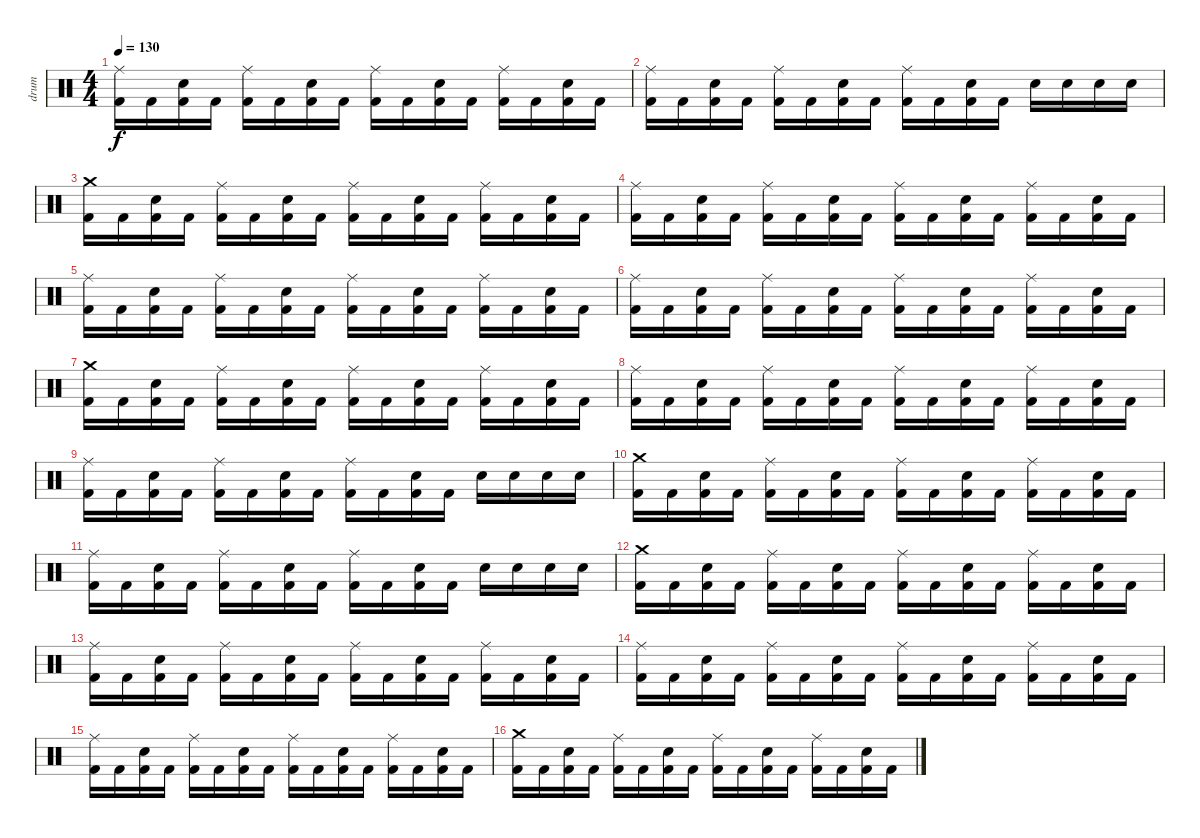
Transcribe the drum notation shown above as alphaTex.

\track ("drum" "drum") {instrument percussion}
\staff {score}
\articulation defaults
\ts (4 4)
\tempo 130
\clef neutral
\ks c
("Ride (middle)" "Kick (hit) 2").16{dy f} "Kick (hit) 2".16 ("Snare (hit) 2" "Kick (hit) 2").16 "Kick (hit) 2".16 ("Ride (middle)" "Kick (hit) 2").16 "Kick (hit) 2".16 ("Snare (hit) 2" "Kick (hit) 2").16 "Kick (hit) 2".16 ("Ride (middle)" "Kick (hit) 2").16 "Kick (hit) 2".16 ("Snare (hit) 2" "Kick (hit) 2").16 "Kick (hit) 2".16 ("Ride (middle)" "Kick (hit) 2").16 "Kick (hit) 2".16 ("Snare (hit) 2" "Kick (hit) 2").16 "Kick (hit) 2".16 |
("Ride (middle)" "Kick (hit) 2").16 "Kick (hit) 2".16 ("Snare (hit) 2" "Kick (hit) 2").16 "Kick (hit) 2".16 ("Ride (middle)" "Kick (hit) 2").16 "Kick (hit) 2".16 ("Snare (hit) 2" "Kick (hit) 2").16 "Kick (hit) 2".16 ("Ride (middle)" "Kick (hit) 2").16 "Kick (hit) 2".16 ("Snare (hit) 2" "Kick (hit) 2").16 "Kick (hit) 2".16 "Snare (hit) 2".16 "Snare (hit) 2".16 "Snare (hit) 2".16 "Snare (hit) 2".16 |
("Crash medium (hit)" "Kick (hit) 2").16 "Kick (hit) 2".16 ("Snare (hit) 2" "Kick (hit) 2").16 "Kick (hit) 2".16 ("Ride (middle)" "Kick (hit) 2").16 "Kick (hit) 2".16 ("Snare (hit) 2" "Kick (hit) 2").16 "Kick (hit) 2".16 ("Ride (middle)" "Kick (hit) 2").16 "Kick (hit) 2".16 ("Snare (hit) 2" "Kick (hit) 2").16 "Kick (hit) 2".16 ("Ride (middle)" "Kick (hit) 2").16 "Kick (hit) 2".16 ("Snare (hit) 2" "Kick (hit) 2").16 "Kick (hit) 2".16 |
("Ride (middle)" "Kick (hit) 2").16 "Kick (hit) 2".16 ("Snare (hit) 2" "Kick (hit) 2").16 "Kick (hit) 2".16 ("Ride (middle)" "Kick (hit) 2").16 "Kick (hit) 2".16 ("Snare (hit) 2" "Kick (hit) 2").16 "Kick (hit) 2".16 ("Ride (middle)" "Kick (hit) 2").16 "Kick (hit) 2".16 ("Snare (hit) 2" "Kick (hit) 2").16 "Kick (hit) 2".16 ("Ride (middle)" "Kick (hit) 2").16 "Kick (hit) 2".16 ("Snare (hit) 2" "Kick (hit) 2").16 "Kick (hit) 2".16 |
("Ride (middle)" "Kick (hit) 2").16 "Kick (hit) 2".16 ("Snare (hit) 2" "Kick (hit) 2").16 "Kick (hit) 2".16 ("Ride (middle)" "Kick (hit) 2").16 "Kick (hit) 2".16 ("Snare (hit) 2" "Kick (hit) 2").16 "Kick (hit) 2".16 ("Ride (middle)" "Kick (hit) 2").16 "Kick (hit) 2".16 ("Snare (hit) 2" "Kick (hit) 2").16 "Kick (hit) 2".16 ("Ride (middle)" "Kick (hit) 2").16 "Kick (hit) 2".16 ("Snare (hit) 2" "Kick (hit) 2").16 "Kick (hit) 2".16 |
("Ride (middle)" "Kick (hit) 2").16 "Kick (hit) 2".16 ("Snare (hit) 2" "Kick (hit) 2").16 "Kick (hit) 2".16 ("Ride (middle)" "Kick (hit) 2").16 "Kick (hit) 2".16 ("Snare (hit) 2" "Kick (hit) 2").16 "Kick (hit) 2".16 ("Ride (middle)" "Kick (hit) 2").16 "Kick (hit) 2".16 ("Snare (hit) 2" "Kick (hit) 2").16 "Kick (hit) 2".16 ("Ride (middle)" "Kick (hit) 2").16 "Kick (hit) 2".16 ("Snare (hit) 2" "Kick (hit) 2").16 "Kick (hit) 2".16 |
("Crash medium (hit)" "Kick (hit) 2").16 "Kick (hit) 2".16 ("Snare (hit) 2" "Kick (hit) 2").16 "Kick (hit) 2".16 ("Ride (middle)" "Kick (hit) 2").16 "Kick (hit) 2".16 ("Snare (hit) 2" "Kick (hit) 2").16 "Kick (hit) 2".16 ("Ride (middle)" "Kick (hit) 2").16 "Kick (hit) 2".16 ("Snare (hit) 2" "Kick (hit) 2").16 "Kick (hit) 2".16 ("Ride (middle)" "Kick (hit) 2").16 "Kick (hit) 2".16 ("Snare (hit) 2" "Kick (hit) 2").16 "Kick (hit) 2".16 |
("Ride (middle)" "Kick (hit) 2").16 "Kick (hit) 2".16 ("Snare (hit) 2" "Kick (hit) 2").16 "Kick (hit) 2".16 ("Ride (middle)" "Kick (hit) 2").16 "Kick (hit) 2".16 ("Snare (hit) 2" "Kick (hit) 2").16 "Kick (hit) 2".16 ("Ride (middle)" "Kick (hit) 2").16 "Kick (hit) 2".16 ("Snare (hit) 2" "Kick (hit) 2").16 "Kick (hit) 2".16 ("Ride (middle)" "Kick (hit) 2").16 "Kick (hit) 2".16 ("Snare (hit) 2" "Kick (hit) 2").16 "Kick (hit) 2".16 |
("Ride (middle)" "Kick (hit) 2").16 "Kick (hit) 2".16 ("Snare (hit) 2" "Kick (hit) 2").16 "Kick (hit) 2".16 ("Ride (middle)" "Kick (hit) 2").16 "Kick (hit) 2".16 ("Snare (hit) 2" "Kick (hit) 2").16 "Kick (hit) 2".16 ("Ride (middle)" "Kick (hit) 2").16 "Kick (hit) 2".16 ("Snare (hit) 2" "Kick (hit) 2").16 "Kick (hit) 2".16 "Snare (hit) 2".16 "Snare (hit) 2".16 "Snare (hit) 2".16 "Snare (hit) 2".16 |
("Crash medium (hit)" "Kick (hit) 2").16 "Kick (hit) 2".16 ("Snare (hit) 2" "Kick (hit) 2").16 "Kick (hit) 2".16 ("Ride (middle)" "Kick (hit) 2").16 "Kick (hit) 2".16 ("Snare (hit) 2" "Kick (hit) 2").16 "Kick (hit) 2".16 ("Ride (middle)" "Kick (hit) 2").16 "Kick (hit) 2".16 ("Snare (hit) 2" "Kick (hit) 2").16 "Kick (hit) 2".16 ("Ride (middle)" "Kick (hit) 2").16 "Kick (hit) 2".16 ("Snare (hit) 2" "Kick (hit) 2").16 "Kick (hit) 2".16 |
("Ride (middle)" "Kick (hit) 2").16 "Kick (hit) 2".16 ("Snare (hit) 2" "Kick (hit) 2").16 "Kick (hit) 2".16 ("Ride (middle)" "Kick (hit) 2").16 "Kick (hit) 2".16 ("Snare (hit) 2" "Kick (hit) 2").16 "Kick (hit) 2".16 ("Ride (middle)" "Kick (hit) 2").16 "Kick (hit) 2".16 ("Snare (hit) 2" "Kick (hit) 2").16 "Kick (hit) 2".16 "Snare (hit) 2".16 "Snare (hit) 2".16 "Snare (hit) 2".16 "Snare (hit) 2".16 |
("Crash medium (hit)" "Kick (hit) 2").16 "Kick (hit) 2".16 ("Snare (hit) 2" "Kick (hit) 2").16 "Kick (hit) 2".16 ("Ride (middle)" "Kick (hit) 2").16 "Kick (hit) 2".16 ("Snare (hit) 2" "Kick (hit) 2").16 "Kick (hit) 2".16 ("Ride (middle)" "Kick (hit) 2").16 "Kick (hit) 2".16 ("Snare (hit) 2" "Kick (hit) 2").16 "Kick (hit) 2".16 ("Ride (middle)" "Kick (hit) 2").16 "Kick (hit) 2".16 ("Snare (hit) 2" "Kick (hit) 2").16 "Kick (hit) 2".16 |
("Ride (middle)" "Kick (hit) 2").16 "Kick (hit) 2".16 ("Snare (hit) 2" "Kick (hit) 2").16 "Kick (hit) 2".16 ("Ride (middle)" "Kick (hit) 2").16 "Kick (hit) 2".16 ("Snare (hit) 2" "Kick (hit) 2").16 "Kick (hit) 2".16 ("Ride (middle)" "Kick (hit) 2").16 "Kick (hit) 2".16 ("Snare (hit) 2" "Kick (hit) 2").16 "Kick (hit) 2".16 ("Ride (middle)" "Kick (hit) 2").16 "Kick (hit) 2".16 ("Snare (hit) 2" "Kick (hit) 2").16 "Kick (hit) 2".16 |
("Ride (middle)" "Kick (hit) 2").16 "Kick (hit) 2".16 ("Snare (hit) 2" "Kick (hit) 2").16 "Kick (hit) 2".16 ("Ride (middle)" "Kick (hit) 2").16 "Kick (hit) 2".16 ("Snare (hit) 2" "Kick (hit) 2").16 "Kick (hit) 2".16 ("Ride (middle)" "Kick (hit) 2").16 "Kick (hit) 2".16 ("Snare (hit) 2" "Kick (hit) 2").16 "Kick (hit) 2".16 ("Ride (middle)" "Kick (hit) 2").16 "Kick (hit) 2".16 ("Snare (hit) 2" "Kick (hit) 2").16 "Kick (hit) 2".16 |
("Ride (middle)" "Kick (hit) 2").16 "Kick (hit) 2".16 ("Snare (hit) 2" "Kick (hit) 2").16 "Kick (hit) 2".16 ("Ride (middle)" "Kick (hit) 2").16 "Kick (hit) 2".16 ("Snare (hit) 2" "Kick (hit) 2").16 "Kick (hit) 2".16 ("Ride (middle)" "Kick (hit) 2").16 "Kick (hit) 2".16 ("Snare (hit) 2" "Kick (hit) 2").16 "Kick (hit) 2".16 ("Ride (middle)" "Kick (hit) 2").16 "Kick (hit) 2".16 ("Snare (hit) 2" "Kick (hit) 2").16 "Kick (hit) 2".16 |
("Crash medium (hit)" "Kick (hit) 2").16 "Kick (hit) 2".16 ("Snare (hit) 2" "Kick (hit) 2").16 "Kick (hit) 2".16 ("Ride (middle)" "Kick (hit) 2").16 "Kick (hit) 2".16 ("Snare (hit) 2" "Kick (hit) 2").16 "Kick (hit) 2".16 ("Ride (middle)" "Kick (hit) 2").16 "Kick (hit) 2".16 ("Snare (hit) 2" "Kick (hit) 2").16 "Kick (hit) 2".16 ("Ride (middle)" "Kick (hit) 2").16 "Kick (hit) 2".16 ("Snare (hit) 2" "Kick (hit) 2").16 "Kick (hit) 2".16
